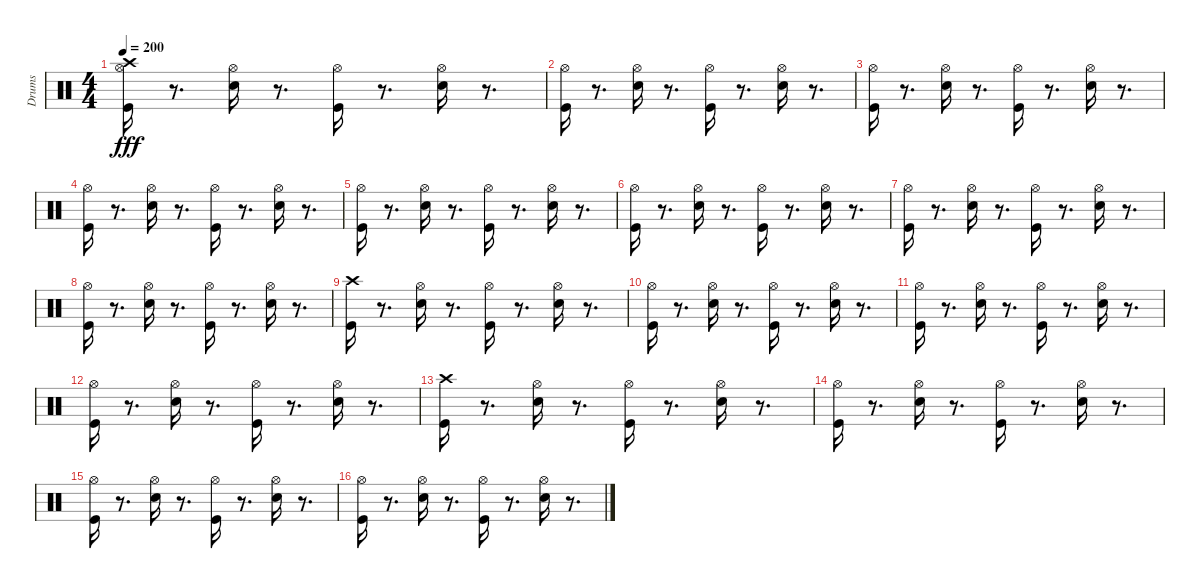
\track ("Drums" "Drums") {instrument percussion}
\staff {score}
\articulation defaults
\ts (4 4)
\tempo 200
\clef neutral
\ks c
("Crash high (hit)" "Hi-Hat (open)" "Kick (hit)").16{dy fff} r.8{d} ("Hi-Hat (open)" "Snare (hit) 2").16 r.8{d} ("Hi-Hat (open)" "Kick (hit)").16 r.8{d} ("Snare (hit) 2" "Hi-Hat (open)").16 r.8{d} |
("Hi-Hat (open)" "Kick (hit)").16 r.8{d} ("Hi-Hat (open)" "Snare (hit) 2").16 r.8{d} ("Hi-Hat (open)" "Kick (hit)").16 r.8{d} ("Snare (hit) 2" "Hi-Hat (open)").16 r.8{d} |
("Hi-Hat (open)" "Kick (hit)").16 r.8{d} ("Snare (hit) 2" "Hi-Hat (open)").16 r.8{d} ("Kick (hit)" "Hi-Hat (open)").16 r.8{d} ("Hi-Hat (open)" "Snare (hit) 2").16 r.8{d} |
("Kick (hit)" "Hi-Hat (open)").16 r.8{d} ("Hi-Hat (open)" "Snare (hit) 2").16 r.8{d} ("Hi-Hat (open)" "Kick (hit)").16 r.8{d} ("Snare (hit) 2" "Hi-Hat (open)").16 r.8{d} |
("Hi-Hat (open)" "Kick (hit)").16 r.8{d} ("Hi-Hat (open)" "Snare (hit) 2").16 r.8{d} ("Hi-Hat (open)" "Kick (hit)").16 r.8{d} ("Hi-Hat (open)" "Snare (hit) 2").16 r.8{d} |
("Hi-Hat (open)" "Kick (hit)").16 r.8{d} ("Snare (hit) 2" "Hi-Hat (open)").16 r.8{d} ("Kick (hit)" "Hi-Hat (open)").16 r.8{d} ("Snare (hit) 2" "Hi-Hat (open)").16 r.8{d} |
("Hi-Hat (open)" "Kick (hit)").16 r.8{d} ("Hi-Hat (open)" "Snare (hit) 2").16 r.8{d} ("Kick (hit)" "Hi-Hat (open)").16 r.8{d} ("Hi-Hat (open)" "Snare (hit) 2").16 r.8{d} |
("Kick (hit)" "Hi-Hat (open)").16 r.8{d} ("Hi-Hat (open)" "Snare (hit) 2").16 r.8{d} ("Hi-Hat (open)" "Kick (hit)").16 r.8{d} ("Hi-Hat (open)" "Snare (hit) 2").16 r.8{d} |
("Kick (hit)" "Crash high (hit)").16 r.8{d} ("Snare (hit) 2" "Hi-Hat (open)").16 r.8{d} ("Hi-Hat (open)" "Kick (hit)").16 r.8{d} ("Hi-Hat (open)" "Snare (hit) 2").16 r.8{d} |
("Kick (hit)" "Hi-Hat (open)").16 r.8{d} ("Hi-Hat (open)" "Snare (hit) 2").16 r.8{d} ("Hi-Hat (open)" "Kick (hit)").16 r.8{d} ("Snare (hit) 2" "Hi-Hat (open)").16 r.8{d} |
("Hi-Hat (open)" "Kick (hit)").16 r.8{d} ("Hi-Hat (open)" "Snare (hit) 2").16 r.8{d} ("Hi-Hat (open)" "Kick (hit)").16 r.8{d} ("Snare (hit) 2" "Hi-Hat (open)").16 r.8{d} |
("Hi-Hat (open)" "Kick (hit)").16 r.8{d} ("Snare (hit) 2" "Hi-Hat (open)").16 r.8{d} ("Hi-Hat (open)" "Kick (hit)").16 r.8{d} ("Snare (hit) 2" "Hi-Hat (open)").16 r.8{d} |
("Kick (hit)" "Crash high (hit)").16 r.8{d} ("Snare (hit) 2" "Hi-Hat (open)").16 r.8{d} ("Kick (hit)" "Hi-Hat (open)").16 r.8{d} ("Hi-Hat (open)" "Snare (hit) 2").16 r.8{d} |
("Hi-Hat (open)" "Kick (hit)").16 r.8{d} ("Hi-Hat (open)" "Snare (hit) 2").16 r.8{d} ("Hi-Hat (open)" "Kick (hit)").16 r.8{d} ("Snare (hit) 2" "Hi-Hat (open)").16 r.8{d} |
("Hi-Hat (open)" "Kick (hit)").16 r.8{d} ("Hi-Hat (open)" "Snare (hit) 2").16 r.8{d} ("Hi-Hat (open)" "Kick (hit)").16 r.8{d} ("Snare (hit) 2" "Hi-Hat (open)").16 r.8{d} |
("Hi-Hat (open)" "Kick (hit)").16 r.8{d} ("Snare (hit) 2" "Hi-Hat (open)").16 r.8{d} ("Hi-Hat (open)" "Kick (hit)").16 r.8{d} ("Snare (hit) 2" "Hi-Hat (open)").16 r.8{d}
